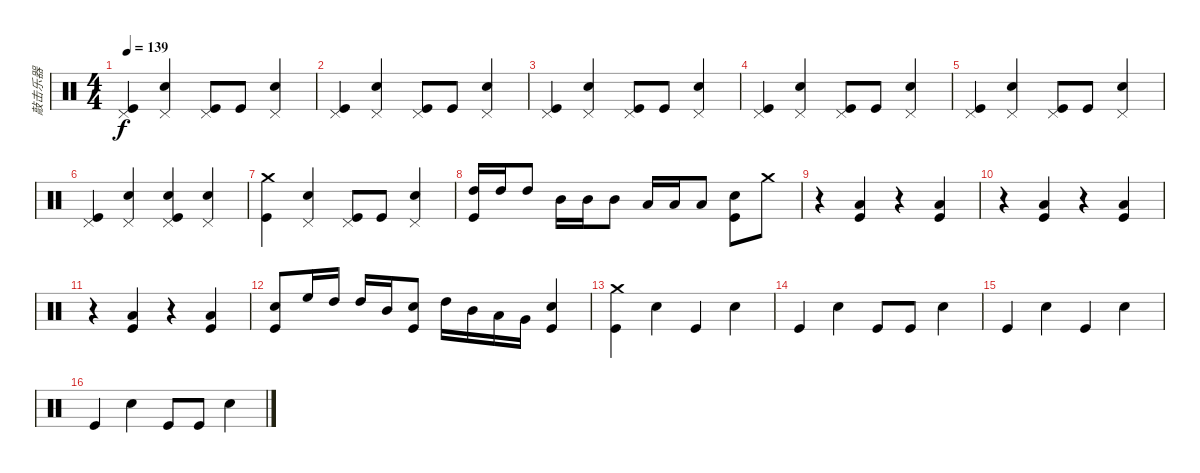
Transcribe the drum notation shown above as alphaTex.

\track ("敲击乐器" "敲击乐器") {instrument percussion}
\staff {score}
\articulation defaults
\ts (4 4)
\tempo 139
\clef neutral
\ks c
("Pedal Hi-Hat (hit)" "Kick (hit)").4{dy f} ("Pedal Hi-Hat (hit)" "Snare (hit) 2").4 ("Pedal Hi-Hat (hit)" "Kick (hit)").8 "Kick (hit)".8 ("Pedal Hi-Hat (hit)" "Snare (hit) 2").4 |
("Pedal Hi-Hat (hit)" "Kick (hit)").4 ("Pedal Hi-Hat (hit)" "Snare (hit) 2").4 ("Pedal Hi-Hat (hit)" "Kick (hit)").8 "Kick (hit)".8 ("Pedal Hi-Hat (hit)" "Snare (hit) 2").4 |
("Pedal Hi-Hat (hit)" "Kick (hit)").4 ("Pedal Hi-Hat (hit)" "Snare (hit) 2").4 ("Pedal Hi-Hat (hit)" "Kick (hit)").8 "Kick (hit)".8 ("Pedal Hi-Hat (hit)" "Snare (hit) 2").4 |
("Pedal Hi-Hat (hit)" "Kick (hit)").4 ("Pedal Hi-Hat (hit)" "Snare (hit) 2").4 ("Pedal Hi-Hat (hit)" "Kick (hit)").8 "Kick (hit)".8 ("Pedal Hi-Hat (hit)" "Snare (hit) 2").4 |
("Pedal Hi-Hat (hit)" "Kick (hit)").4 ("Pedal Hi-Hat (hit)" "Snare (hit) 2").4 ("Pedal Hi-Hat (hit)" "Kick (hit)").8 "Kick (hit)".8 ("Pedal Hi-Hat (hit)" "Snare (hit) 2").4 |
("Pedal Hi-Hat (hit)" "Kick (hit)").4 ("Pedal Hi-Hat (hit)" "Snare (hit) 2").4 ("Pedal Hi-Hat (hit)" "Snare (hit) 2" "Kick (hit)").4 ("Pedal Hi-Hat (hit)" "Snare (hit) 2").4 |
("Crash medium (hit)" "Kick (hit)").4 ("Pedal Hi-Hat (hit)" "Snare (hit) 2").4 ("Pedal Hi-Hat (hit)" "Kick (hit)").8 "Kick (hit)".8 ("Pedal Hi-Hat (hit)" "Snare (hit) 2").4 |
("High Tom (hit)" "Kick (hit)").16 "High Tom (hit)".16 "High Tom (hit)".8 "Mid Tom (hit)".16 "Mid Tom (hit)".16 "Mid Tom (hit)".8 "Low Tom (hit)".16 "Low Tom (hit)".16 "Low Tom (hit)".8 ("Snare (hit) 2" "Kick (hit)").8 "Crash medium (hit)".8 |
r.4 ("Low Tom (hit)" "Kick (hit)").4 r.4 ("Low Tom (hit)" "Kick (hit)").4 |
r.4 ("Low Tom (hit)" "Kick (hit)").4 r.4 ("Low Tom (hit)" "Kick (hit)").4 |
r.4 ("Low Tom (hit)" "Kick (hit)").4 r.4 ("Low Tom (hit)" "Kick (hit)").4 |
("Snare (hit) 2" "Kick (hit)").8 "High Floor Tom (hit)".16 "High Tom (hit)".16 "High Tom (hit)".16 "Mid Tom (hit)".16 ("Snare (hit) 2" "Kick (hit)").8 "High Tom (hit)".16 "Mid Tom (hit)".16 "Low Tom (hit)".16 "Very Low Tom (hit)".16 ("Snare (hit) 2" "Kick (hit)").4 |
("Crash medium (hit)" "Kick (hit)").4 "Snare (hit) 2".4 "Kick (hit)".4 "Snare (hit) 2".4 |
"Kick (hit)".4 "Snare (hit) 2".4 "Kick (hit)".8 "Kick (hit)".8 "Snare (hit) 2".4 |
"Kick (hit)".4 "Snare (hit) 2".4 "Kick (hit)".4 "Snare (hit) 2".4 |
"Kick (hit)".4 "Snare (hit) 2".4 "Kick (hit)".8 "Kick (hit)".8 "Snare (hit) 2".4
